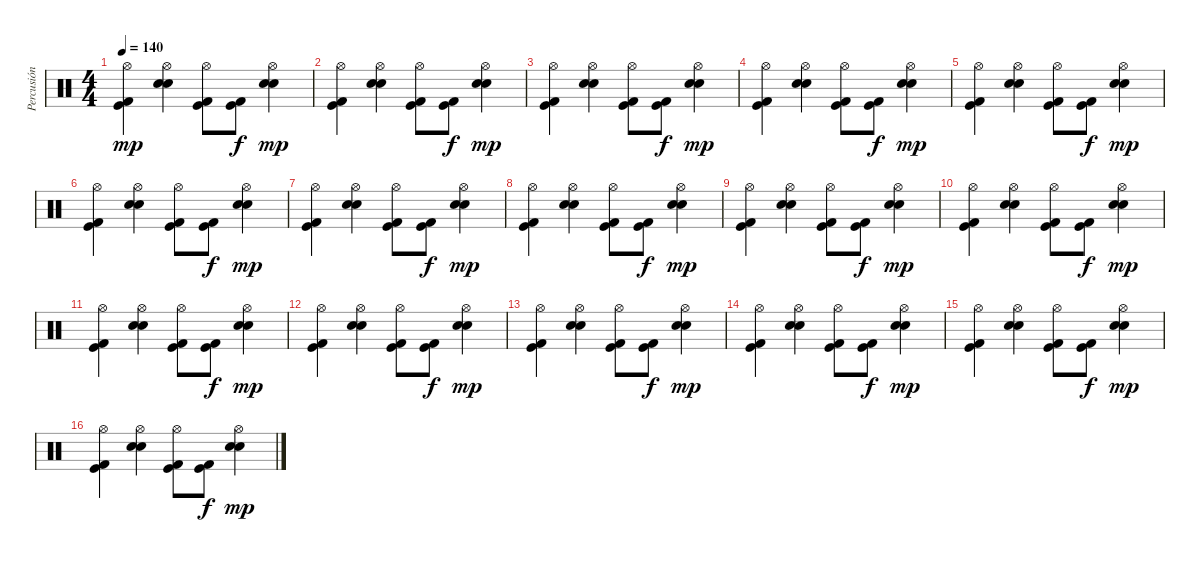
\track ("Percusión" "Percusión") {instrument percussion}
\staff {score}
\articulation defaults
\ts (4 4)
\tempo 140
\clef neutral
\ks c
("Kick (hit)" "Kick (hit) 2" "Hi-Hat (open)").4{dy mp} ("Electric Snare (hit)" "Snare (hit) 2" "Hi-Hat (open)").4 ("Kick (hit)" "Kick (hit) 2" "Hi-Hat (open)").8 ("Kick (hit)" "Kick (hit) 2").8{dy f} ("Snare (hit) 2" "Electric Snare (hit)" "Hi-Hat (open)").4{dy mp} |
("Kick (hit)" "Kick (hit) 2" "Hi-Hat (open)").4 ("Electric Snare (hit)" "Snare (hit) 2" "Hi-Hat (open)").4 ("Kick (hit)" "Kick (hit) 2" "Hi-Hat (open)").8 ("Kick (hit)" "Kick (hit) 2").8{dy f} ("Snare (hit) 2" "Electric Snare (hit)" "Hi-Hat (open)").4{dy mp} |
("Kick (hit)" "Kick (hit) 2" "Hi-Hat (open)").4 ("Electric Snare (hit)" "Snare (hit) 2" "Hi-Hat (open)").4 ("Kick (hit)" "Kick (hit) 2" "Hi-Hat (open)").8 ("Kick (hit)" "Kick (hit) 2").8{dy f} ("Snare (hit) 2" "Electric Snare (hit)" "Hi-Hat (open)").4{dy mp} |
("Kick (hit)" "Kick (hit) 2" "Hi-Hat (open)").4 ("Electric Snare (hit)" "Snare (hit) 2" "Hi-Hat (open)").4 ("Kick (hit)" "Kick (hit) 2" "Hi-Hat (open)").8 ("Kick (hit)" "Kick (hit) 2").8{dy f} ("Snare (hit) 2" "Electric Snare (hit)" "Hi-Hat (open)").4{dy mp} |
("Kick (hit)" "Kick (hit) 2" "Hi-Hat (open)").4 ("Electric Snare (hit)" "Snare (hit) 2" "Hi-Hat (open)").4 ("Kick (hit)" "Kick (hit) 2" "Hi-Hat (open)").8 ("Kick (hit)" "Kick (hit) 2").8{dy f} ("Snare (hit) 2" "Electric Snare (hit)" "Hi-Hat (open)").4{dy mp} |
("Kick (hit)" "Kick (hit) 2" "Hi-Hat (open)").4 ("Electric Snare (hit)" "Snare (hit) 2" "Hi-Hat (open)").4 ("Kick (hit)" "Kick (hit) 2" "Hi-Hat (open)").8 ("Kick (hit)" "Kick (hit) 2").8{dy f} ("Snare (hit) 2" "Electric Snare (hit)" "Hi-Hat (open)").4{dy mp} |
("Kick (hit)" "Kick (hit) 2" "Hi-Hat (open)").4 ("Electric Snare (hit)" "Snare (hit) 2" "Hi-Hat (open)").4 ("Kick (hit)" "Kick (hit) 2" "Hi-Hat (open)").8 ("Kick (hit)" "Kick (hit) 2").8{dy f} ("Snare (hit) 2" "Electric Snare (hit)" "Hi-Hat (open)").4{dy mp} |
("Kick (hit)" "Kick (hit) 2" "Hi-Hat (open)").4 ("Electric Snare (hit)" "Snare (hit) 2" "Hi-Hat (open)").4 ("Kick (hit)" "Kick (hit) 2" "Hi-Hat (open)").8 ("Kick (hit)" "Kick (hit) 2").8{dy f} ("Snare (hit) 2" "Electric Snare (hit)" "Hi-Hat (open)").4{dy mp} |
("Kick (hit)" "Kick (hit) 2" "Hi-Hat (open)").4 ("Electric Snare (hit)" "Snare (hit) 2" "Hi-Hat (open)").4 ("Kick (hit)" "Kick (hit) 2" "Hi-Hat (open)").8 ("Kick (hit)" "Kick (hit) 2").8{dy f} ("Snare (hit) 2" "Electric Snare (hit)" "Hi-Hat (open)").4{dy mp} |
("Kick (hit)" "Kick (hit) 2" "Hi-Hat (open)").4 ("Electric Snare (hit)" "Snare (hit) 2" "Hi-Hat (open)").4 ("Kick (hit)" "Kick (hit) 2" "Hi-Hat (open)").8 ("Kick (hit)" "Kick (hit) 2").8{dy f} ("Snare (hit) 2" "Electric Snare (hit)" "Hi-Hat (open)").4{dy mp} |
("Kick (hit)" "Kick (hit) 2" "Hi-Hat (open)").4 ("Electric Snare (hit)" "Snare (hit) 2" "Hi-Hat (open)").4 ("Kick (hit)" "Kick (hit) 2" "Hi-Hat (open)").8 ("Kick (hit)" "Kick (hit) 2").8{dy f} ("Snare (hit) 2" "Electric Snare (hit)" "Hi-Hat (open)").4{dy mp} |
("Kick (hit)" "Kick (hit) 2" "Hi-Hat (open)").4 ("Electric Snare (hit)" "Snare (hit) 2" "Hi-Hat (open)").4 ("Kick (hit)" "Kick (hit) 2" "Hi-Hat (open)").8 ("Kick (hit)" "Kick (hit) 2").8{dy f} ("Snare (hit) 2" "Electric Snare (hit)" "Hi-Hat (open)").4{dy mp} |
("Kick (hit)" "Kick (hit) 2" "Hi-Hat (open)").4 ("Electric Snare (hit)" "Snare (hit) 2" "Hi-Hat (open)").4 ("Kick (hit)" "Kick (hit) 2" "Hi-Hat (open)").8 ("Kick (hit)" "Kick (hit) 2").8{dy f} ("Snare (hit) 2" "Electric Snare (hit)" "Hi-Hat (open)").4{dy mp} |
("Kick (hit)" "Kick (hit) 2" "Hi-Hat (open)").4 ("Electric Snare (hit)" "Snare (hit) 2" "Hi-Hat (open)").4 ("Kick (hit)" "Kick (hit) 2" "Hi-Hat (open)").8 ("Kick (hit)" "Kick (hit) 2").8{dy f} ("Snare (hit) 2" "Electric Snare (hit)" "Hi-Hat (open)").4{dy mp} |
("Kick (hit)" "Kick (hit) 2" "Hi-Hat (open)").4 ("Electric Snare (hit)" "Snare (hit) 2" "Hi-Hat (open)").4 ("Kick (hit)" "Kick (hit) 2" "Hi-Hat (open)").8 ("Kick (hit)" "Kick (hit) 2").8{dy f} ("Snare (hit) 2" "Electric Snare (hit)" "Hi-Hat (open)").4{dy mp} |
("Kick (hit)" "Kick (hit) 2" "Hi-Hat (open)").4 ("Electric Snare (hit)" "Snare (hit) 2" "Hi-Hat (open)").4 ("Kick (hit)" "Kick (hit) 2" "Hi-Hat (open)").8 ("Kick (hit)" "Kick (hit) 2").8{dy f} ("Snare (hit) 2" "Electric Snare (hit)" "Hi-Hat (open)").4{dy mp}
